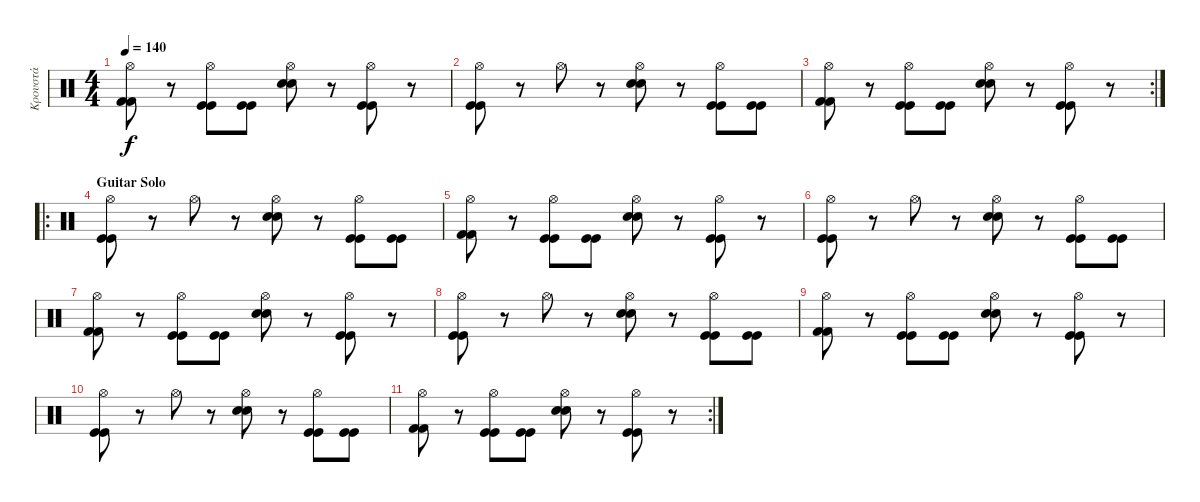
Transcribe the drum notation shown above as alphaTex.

\track ("Κρουστά" "Κρουστά") {instrument percussion}
\staff {score}
\articulation defaults
\ts (4 4)
\tempo 140
\clef neutral
\ks c
("Hi-Hat (open)" "Kick (hit) 2" "Kick (hit) 2").8{dy f} r.8 ("Hi-Hat (open)" "Kick (hit)" "Kick (hit)").8 ("Kick (hit)" "Kick (hit)").8 ("Hi-Hat (open)" "Electric Snare (hit)" "Electric Snare (hit)").8 r.8 ("Hi-Hat (open)" "Kick (hit)" "Kick (hit)").8 r.8 |
("Hi-Hat (open)" "Kick (hit)" "Kick (hit)").8 r.8 "Hi-Hat (open)".8 r.8 ("Hi-Hat (open)" "Electric Snare (hit)" "Electric Snare (hit)").8 r.8 ("Hi-Hat (open)" "Kick (hit)" "Kick (hit)").8 ("Kick (hit)" "Kick (hit)").8 |
\rc 2
("Hi-Hat (open)" "Kick (hit) 2" "Kick (hit) 2").8 r.8 ("Hi-Hat (open)" "Kick (hit)" "Kick (hit)").8 ("Kick (hit)" "Kick (hit)").8 ("Hi-Hat (open)" "Electric Snare (hit)" "Electric Snare (hit)").8 r.8 ("Hi-Hat (open)" "Kick (hit)" "Kick (hit)").8 r.8 |
\ro
\section ("" "Guitar Solo")
("Hi-Hat (open)" "Kick (hit)" "Kick (hit)").8 r.8 "Hi-Hat (open)".8 r.8 ("Hi-Hat (open)" "Electric Snare (hit)" "Electric Snare (hit)").8 r.8 ("Hi-Hat (open)" "Kick (hit)" "Kick (hit)").8 ("Kick (hit)" "Kick (hit)").8 |
("Hi-Hat (open)" "Kick (hit) 2" "Kick (hit) 2").8 r.8 ("Hi-Hat (open)" "Kick (hit)" "Kick (hit)").8 ("Kick (hit)" "Kick (hit)").8 ("Hi-Hat (open)" "Electric Snare (hit)" "Electric Snare (hit)").8 r.8 ("Hi-Hat (open)" "Kick (hit)" "Kick (hit)").8 r.8 |
("Hi-Hat (open)" "Kick (hit)" "Kick (hit)").8 r.8 "Hi-Hat (open)".8 r.8 ("Hi-Hat (open)" "Electric Snare (hit)" "Electric Snare (hit)").8 r.8 ("Hi-Hat (open)" "Kick (hit)" "Kick (hit)").8 ("Kick (hit)" "Kick (hit)").8 |
("Hi-Hat (open)" "Kick (hit) 2" "Kick (hit) 2").8 r.8 ("Hi-Hat (open)" "Kick (hit)" "Kick (hit)").8 ("Kick (hit)" "Kick (hit)").8 ("Hi-Hat (open)" "Electric Snare (hit)" "Electric Snare (hit)").8 r.8 ("Hi-Hat (open)" "Kick (hit)" "Kick (hit)").8 r.8 |
("Hi-Hat (open)" "Kick (hit)" "Kick (hit)").8 r.8 "Hi-Hat (open)".8 r.8 ("Hi-Hat (open)" "Electric Snare (hit)" "Electric Snare (hit)").8 r.8 ("Hi-Hat (open)" "Kick (hit)" "Kick (hit)").8 ("Kick (hit)" "Kick (hit)").8 |
("Hi-Hat (open)" "Kick (hit) 2" "Kick (hit) 2").8 r.8 ("Hi-Hat (open)" "Kick (hit)" "Kick (hit)").8 ("Kick (hit)" "Kick (hit)").8 ("Hi-Hat (open)" "Electric Snare (hit)" "Electric Snare (hit)").8 r.8 ("Hi-Hat (open)" "Kick (hit)" "Kick (hit)").8 r.8 |
("Hi-Hat (open)" "Kick (hit)" "Kick (hit)").8 r.8 "Hi-Hat (open)".8 r.8 ("Hi-Hat (open)" "Electric Snare (hit)" "Electric Snare (hit)").8 r.8 ("Hi-Hat (open)" "Kick (hit)" "Kick (hit)").8 ("Kick (hit)" "Kick (hit)").8 |
\rc 2
("Hi-Hat (open)" "Kick (hit) 2" "Kick (hit) 2").8 r.8 ("Hi-Hat (open)" "Kick (hit)" "Kick (hit)").8 ("Kick (hit)" "Kick (hit)").8 ("Hi-Hat (open)" "Electric Snare (hit)" "Electric Snare (hit)").8 r.8 ("Hi-Hat (open)" "Kick (hit)" "Kick (hit)").8 r.8
